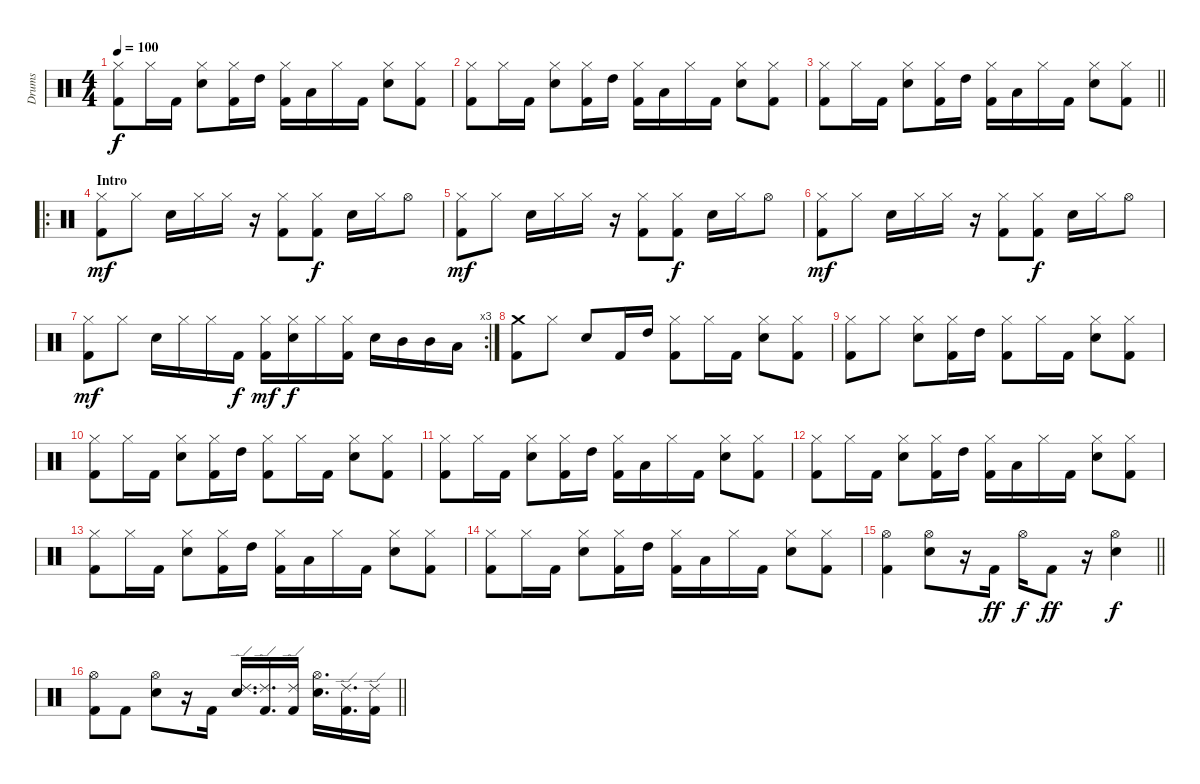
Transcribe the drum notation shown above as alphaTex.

\track ("Drums" "Drums") {instrument percussion}
\staff {score}
\articulation defaults
\ts (4 4)
\tempo 100
\clef neutral
\ks c
("Hi-Hat (closed)" "Kick (hit) 2").8{dy f} "Hi-Hat (closed)".16 "Kick (hit) 2".16 ("Hi-Hat (closed)" "Electric Snare (hit)").8 ("Hi-Hat (closed)" "Kick (hit) 2").16 "High Tom (hit)".16 ("Hi-Hat (closed)" "Kick (hit) 2").16 "Low Tom (hit)".16 "Hi-Hat (closed)".16 "Kick (hit) 2".16 ("Hi-Hat (closed)" "Electric Snare (hit)").8 ("Hi-Hat (closed)" "Kick (hit) 2").8 |
("Hi-Hat (closed)" "Kick (hit) 2").8 "Hi-Hat (closed)".16 "Kick (hit) 2".16 ("Hi-Hat (closed)" "Electric Snare (hit)").8 ("Hi-Hat (closed)" "Kick (hit) 2").16 "High Tom (hit)".16 ("Hi-Hat (closed)" "Kick (hit) 2").16 "Low Tom (hit)".16 "Hi-Hat (closed)".16 "Kick (hit) 2".16 ("Hi-Hat (closed)" "Electric Snare (hit)").8 ("Hi-Hat (closed)" "Kick (hit) 2").8 |
\barLineRight lightlight
("Hi-Hat (closed)" "Kick (hit) 2").8 "Hi-Hat (closed)".16 "Kick (hit) 2".16 ("Hi-Hat (closed)" "Electric Snare (hit)").8 ("Hi-Hat (closed)" "Kick (hit) 2").16 "High Tom (hit)".16 ("Hi-Hat (closed)" "Kick (hit) 2").16 "Low Tom (hit)".16 "Hi-Hat (closed)".16 "Kick (hit) 2".16 ("Hi-Hat (closed)" "Electric Snare (hit)").8 ("Hi-Hat (closed)" "Kick (hit) 2").8 |
\ro
\section ("" "Intro")
("Hi-Hat (closed)" "Kick (hit) 2").8{dy mf} "Hi-Hat (closed)".8 "Electric Snare (hit)".16 "Hi-Hat (closed)".16 "Hi-Hat (closed)".16 r.16 ("Hi-Hat (closed)" "Kick (hit) 2").8 ("Hi-Hat (closed)" "Kick (hit) 2").8{dy f} "Electric Snare (hit)".16 "Hi-Hat (closed)".16 "Hi-Hat (open)".8 |
("Hi-Hat (closed)" "Kick (hit) 2").8{dy mf} "Hi-Hat (closed)".8 "Electric Snare (hit)".16 "Hi-Hat (closed)".16 "Hi-Hat (closed)".16 r.16 ("Hi-Hat (closed)" "Kick (hit) 2").8 ("Hi-Hat (closed)" "Kick (hit) 2").8{dy f} "Electric Snare (hit)".16 "Hi-Hat (closed)".16 "Hi-Hat (open)".8 |
("Hi-Hat (closed)" "Kick (hit) 2").8{dy mf} "Hi-Hat (closed)".8 "Electric Snare (hit)".16 "Hi-Hat (closed)".16 "Hi-Hat (closed)".16 r.16 ("Hi-Hat (closed)" "Kick (hit) 2").8 ("Hi-Hat (closed)" "Kick (hit) 2").8{dy f} "Electric Snare (hit)".16 "Hi-Hat (closed)".16 "Hi-Hat (open)".8 |
\rc 3
("Hi-Hat (closed)" "Kick (hit) 2").8{dy mf} "Hi-Hat (closed)".8 "Electric Snare (hit)".16 "Hi-Hat (closed)".16 "Hi-Hat (closed)".16 "Kick (hit) 2".16{dy f} ("Hi-Hat (closed)" "Kick (hit) 2").16{dy mf} ("Hi-Hat (closed)" "Electric Snare (hit)").16{dy f} "Hi-Hat (closed)".16 ("Hi-Hat (closed)" "Kick (hit) 2").16 "Electric Snare (hit)".16 "Mid Tom (hit)".16 "Mid Tom (hit)".16 "Low Tom (hit)".16 |
("Crash medium (hit)" "Kick (hit) 2").8 "Hi-Hat (closed)".8 "Electric Snare (hit)".8 "Kick (hit) 2".16 "High Tom (hit)".16 ("Hi-Hat (closed)" "Kick (hit) 2").8 "Hi-Hat (closed)".16 "Kick (hit) 2".16 ("Hi-Hat (closed)" "Electric Snare (hit)").8 ("Hi-Hat (closed)" "Kick (hit) 2").8 |
("Hi-Hat (closed)" "Kick (hit) 2").8 "Hi-Hat (closed)".8 ("Hi-Hat (closed)" "Electric Snare (hit)").8 ("Hi-Hat (closed)" "Kick (hit) 2").16 "High Tom (hit)".16 ("Hi-Hat (closed)" "Kick (hit) 2").8 "Hi-Hat (closed)".16 "Kick (hit) 2".16 ("Hi-Hat (closed)" "Electric Snare (hit)").8 ("Hi-Hat (closed)" "Kick (hit) 2").8 |
("Hi-Hat (closed)" "Kick (hit) 2").8 "Hi-Hat (closed)".16 "Kick (hit) 2".16 ("Hi-Hat (closed)" "Electric Snare (hit)").8 ("Hi-Hat (closed)" "Kick (hit) 2").16 "High Tom (hit)".16 ("Hi-Hat (closed)" "Kick (hit) 2").8 "Hi-Hat (closed)".16 "Kick (hit) 2".16 ("Hi-Hat (closed)" "Electric Snare (hit)").8 ("Hi-Hat (closed)" "Kick (hit) 2").8 |
("Hi-Hat (closed)" "Kick (hit) 2").8 "Hi-Hat (closed)".16 "Kick (hit) 2".16 ("Hi-Hat (closed)" "Electric Snare (hit)").8 ("Hi-Hat (closed)" "Kick (hit) 2").16 "High Tom (hit)".16 ("Hi-Hat (closed)" "Kick (hit) 2").16 "Low Tom (hit)".16 "Hi-Hat (closed)".16 "Kick (hit) 2".16 ("Hi-Hat (closed)" "Electric Snare (hit)").8 ("Hi-Hat (closed)" "Kick (hit) 2").8 |
("Hi-Hat (closed)" "Kick (hit) 2").8 "Hi-Hat (closed)".16 "Kick (hit) 2".16 ("Hi-Hat (closed)" "Electric Snare (hit)").8 ("Hi-Hat (closed)" "Kick (hit) 2").16 "High Tom (hit)".16 ("Hi-Hat (closed)" "Kick (hit) 2").16 "Low Tom (hit)".16 "Hi-Hat (closed)".16 "Kick (hit) 2".16 ("Hi-Hat (closed)" "Electric Snare (hit)").8 ("Hi-Hat (closed)" "Kick (hit) 2").8 |
("Hi-Hat (closed)" "Kick (hit) 2").8 "Hi-Hat (closed)".16 "Kick (hit) 2".16 ("Hi-Hat (closed)" "Electric Snare (hit)").8 ("Hi-Hat (closed)" "Kick (hit) 2").16 "High Tom (hit)".16 ("Hi-Hat (closed)" "Kick (hit) 2").16 "Low Tom (hit)".16 "Hi-Hat (closed)".16 "Kick (hit) 2".16 ("Hi-Hat (closed)" "Electric Snare (hit)").8 ("Hi-Hat (closed)" "Kick (hit) 2").8 |
("Hi-Hat (closed)" "Kick (hit) 2").8 "Hi-Hat (closed)".16 "Kick (hit) 2".16 ("Hi-Hat (closed)" "Electric Snare (hit)").8 ("Hi-Hat (closed)" "Kick (hit) 2").16 "High Tom (hit)".16 ("Hi-Hat (closed)" "Kick (hit) 2").16 "Low Tom (hit)".16 "Hi-Hat (closed)".16 "Kick (hit) 2".16 ("Hi-Hat (closed)" "Electric Snare (hit)").8 ("Hi-Hat (closed)" "Kick (hit) 2").8 |
\barLineRight lightlight
("Hi-Hat (open)" "Kick (hit) 2").4 ("Hi-Hat (open)" "Electric Snare (hit)").8 r.16 "Kick (hit) 2".16{dy ff} "Hi-Hat (open)".16{dy f} "Kick (hit) 2".8{dy ff} r.16 ("Hi-Hat (open)" "Electric Snare (hit)").4{dy f} |
\barLineRight lightlight
("Hi-Hat (open)" "Kick (hit) 2").8 "Kick (hit) 2".8 ("Hi-Hat (open)" "Electric Snare (hit)").8 r.16 "Kick (hit) 2".16 ("Ride (edge) 2" "Electric Snare (hit)").16{d} ("Ride (edge) 2" "Kick (hit) 2").16{d} ("Ride (edge) 2" "Kick (hit) 2").16 ("Hi-Hat (open)" "Electric Snare (hit)").16{d} ("Ride (edge) 2" "Kick (hit) 2").16{d} ("Ride (edge) 2" "Kick (hit) 2").16
